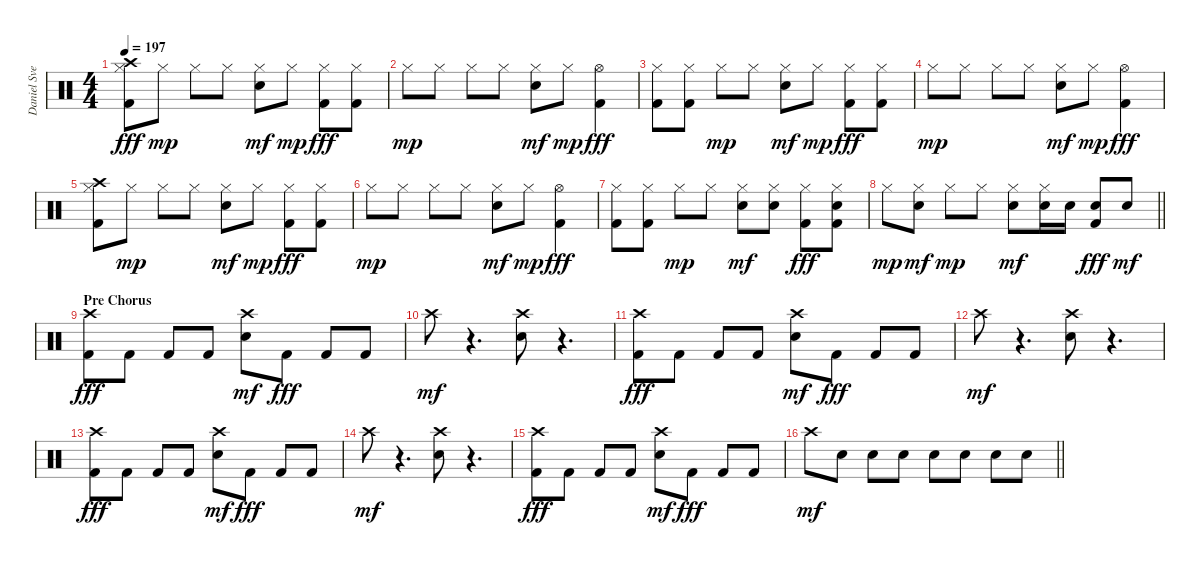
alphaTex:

\track ("Daniel Svensson" "Daniel Sve") {instrument percussion}
\staff {score}
\articulation defaults
\ts (4 4)
\tempo 197
\clef neutral
\ks c
("Crash high (hit)" "Hi-Hat (closed)" "Kick (hit) 2").8{dy fff} "Hi-Hat (closed)".8{dy mp} "Hi-Hat (closed)".8 "Hi-Hat (closed)".8 ("Hi-Hat (closed)" "Electric Snare (hit)").8{dy mf} "Hi-Hat (closed)".8{dy mp} ("Hi-Hat (closed)" "Kick (hit) 2").8{dy fff} ("Hi-Hat (closed)" "Kick (hit) 2").8 |
"Hi-Hat (closed)".8{dy mp} "Hi-Hat (closed)".8 "Hi-Hat (closed)".8 "Hi-Hat (closed)".8 ("Hi-Hat (closed)" "Electric Snare (hit)").8{dy mf} "Hi-Hat (closed)".8{dy mp} ("Hi-Hat (open)" "Kick (hit) 2").4{dy fff} |
("Hi-Hat (closed)" "Kick (hit) 2").8 ("Hi-Hat (closed)" "Kick (hit) 2").8 "Hi-Hat (closed)".8{dy mp} "Hi-Hat (closed)".8 ("Hi-Hat (closed)" "Electric Snare (hit)").8{dy mf} "Hi-Hat (closed)".8{dy mp} ("Hi-Hat (closed)" "Kick (hit) 2").8{dy fff} ("Hi-Hat (closed)" "Kick (hit) 2").8 |
"Hi-Hat (closed)".8{dy mp} "Hi-Hat (closed)".8 "Hi-Hat (closed)".8 "Hi-Hat (closed)".8 ("Hi-Hat (closed)" "Electric Snare (hit)").8{dy mf} "Hi-Hat (closed)".8{dy mp} ("Hi-Hat (open)" "Kick (hit) 2").4{dy fff} |
("Crash high (hit)" "Hi-Hat (closed)" "Kick (hit) 2").8 "Hi-Hat (closed)".8{dy mp} "Hi-Hat (closed)".8 "Hi-Hat (closed)".8 ("Hi-Hat (closed)" "Electric Snare (hit)").8{dy mf} "Hi-Hat (closed)".8{dy mp} ("Hi-Hat (closed)" "Kick (hit) 2").8{dy fff} ("Hi-Hat (closed)" "Kick (hit) 2").8 |
"Hi-Hat (closed)".8{dy mp} "Hi-Hat (closed)".8 "Hi-Hat (closed)".8 "Hi-Hat (closed)".8 ("Hi-Hat (closed)" "Electric Snare (hit)").8{dy mf} "Hi-Hat (closed)".8{dy mp} ("Hi-Hat (open)" "Kick (hit) 2").4{dy fff} |
("Hi-Hat (closed)" "Kick (hit) 2").8 ("Hi-Hat (closed)" "Kick (hit) 2").8 "Hi-Hat (closed)".8{dy mp} "Hi-Hat (closed)".8 ("Hi-Hat (closed)" "Electric Snare (hit)").8{dy mf} ("Hi-Hat (closed)" "Electric Snare (hit)").8 ("Hi-Hat (closed)" "Kick (hit) 2").8{dy fff} ("Hi-Hat (closed)" "Electric Snare (hit)" "Kick (hit) 2").8 |
\barLineRight lightlight "Hi-Hat (closed)".8{dy mp}
("Hi-Hat (closed)" "Electric Snare (hit)").8{dy mf} "Hi-Hat (closed)".8{dy mp} "Hi-Hat (closed)".8 ("Hi-Hat (closed)" "Electric Snare (hit)").8{dy mf} ("Hi-Hat (closed)" "Electric Snare (hit)").16 "Electric Snare (hit)".16 ("Electric Snare (hit)" "Kick (hit) 2").8{dy fff} "Electric Snare (hit)".8{dy mf} |
\section ("" "Pre Chorus")
("Crash high (hit)" "Kick (hit) 2").8{dy fff} "Kick (hit) 2".8 "Kick (hit) 2".8 "Kick (hit) 2".8 ("Crash high (hit)" "Electric Snare (hit)").8{dy mf} "Kick (hit) 2".8{dy fff} "Kick (hit) 2".8 "Kick (hit) 2".8 |
"Crash high (hit)".8{dy mf} r.4{d} ("Crash high (hit)" "Electric Snare (hit)").8 r.4{d} |
("Crash high (hit)" "Kick (hit) 2").8{dy fff} "Kick (hit) 2".8 "Kick (hit) 2".8 "Kick (hit) 2".8 ("Crash high (hit)" "Electric Snare (hit)").8{dy mf} "Kick (hit) 2".8{dy fff} "Kick (hit) 2".8 "Kick (hit) 2".8 |
"Crash high (hit)".8{dy mf} r.4{d} ("Crash high (hit)" "Electric Snare (hit)").8 r.4{d} |
("Crash high (hit)" "Kick (hit) 2").8{dy fff} "Kick (hit) 2".8 "Kick (hit) 2".8 "Kick (hit) 2".8 ("Crash high (hit)" "Electric Snare (hit)").8{dy mf} "Kick (hit) 2".8{dy fff} "Kick (hit) 2".8 "Kick (hit) 2".8 |
"Crash high (hit)".8{dy mf} r.4{d} ("Crash high (hit)" "Electric Snare (hit)").8 r.4{d} |
("Crash high (hit)" "Kick (hit) 2").8{dy fff} "Kick (hit) 2".8 "Kick (hit) 2".8 "Kick (hit) 2".8 ("Crash high (hit)" "Electric Snare (hit)").8{dy mf} "Kick (hit) 2".8{dy fff} "Kick (hit) 2".8 "Kick (hit) 2".8 |
\barLineRight lightlight "Crash high (hit)".8{dy mf} "Electric Snare (hit)".8 "Electric Snare (hit)".8 "Electric Snare (hit)".8 "Electric Snare (hit)".8 "Electric Snare (hit)".8 "Electric Snare (hit)".8 "Electric Snare (hit)".8
